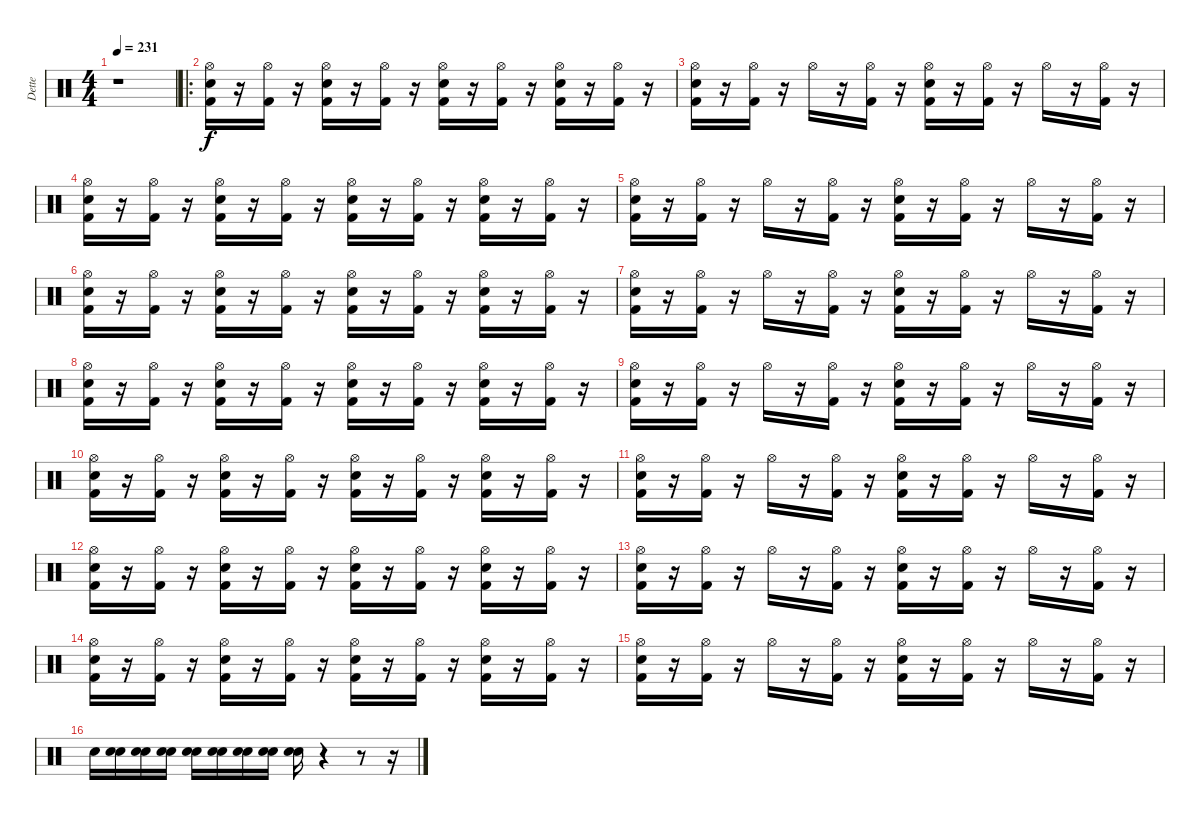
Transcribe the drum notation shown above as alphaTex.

\track ("Dette" "Dette") {instrument percussion}
\staff {score}
\articulation defaults
\ts (4 4)
\tempo 231
\clef neutral
\ks c
r.1{dy f} |
\ro
("Kick (hit) 2" "Snare (hit) 2" "Hi-Hat (open)").16 r.16 ("Kick (hit) 2" "Hi-Hat (open)").16 r.16 ("Kick (hit) 2" "Snare (hit) 2" "Hi-Hat (open)").16 r.16 ("Kick (hit) 2" "Hi-Hat (open)").16 r.16 ("Kick (hit) 2" "Snare (hit) 2" "Hi-Hat (open)").16 r.16 ("Kick (hit) 2" "Hi-Hat (open)").16 r.16 ("Kick (hit) 2" "Snare (hit) 2" "Hi-Hat (open)").16 r.16 ("Kick (hit) 2" "Hi-Hat (open)").16 r.16 |
("Kick (hit) 2" "Snare (hit) 2" "Hi-Hat (open)").16 r.16 ("Kick (hit) 2" "Hi-Hat (open)").16 r.16 "Hi-Hat (open)".16 r.16 ("Kick (hit) 2" "Hi-Hat (open)").16 r.16 ("Kick (hit) 2" "Snare (hit) 2" "Hi-Hat (open)").16 r.16 ("Kick (hit) 2" "Hi-Hat (open)").16 r.16 "Hi-Hat (open)".16 r.16 ("Kick (hit) 2" "Hi-Hat (open)").16 r.16 |
("Kick (hit) 2" "Snare (hit) 2" "Hi-Hat (open)").16 r.16 ("Kick (hit) 2" "Hi-Hat (open)").16 r.16 ("Kick (hit) 2" "Snare (hit) 2" "Hi-Hat (open)").16 r.16 ("Kick (hit) 2" "Hi-Hat (open)").16 r.16 ("Kick (hit) 2" "Snare (hit) 2" "Hi-Hat (open)").16 r.16 ("Kick (hit) 2" "Hi-Hat (open)").16 r.16 ("Kick (hit) 2" "Snare (hit) 2" "Hi-Hat (open)").16 r.16 ("Kick (hit) 2" "Hi-Hat (open)").16 r.16 |
("Kick (hit) 2" "Snare (hit) 2" "Hi-Hat (open)").16 r.16 ("Kick (hit) 2" "Hi-Hat (open)").16 r.16 "Hi-Hat (open)".16 r.16 ("Kick (hit) 2" "Hi-Hat (open)").16 r.16 ("Kick (hit) 2" "Snare (hit) 2" "Hi-Hat (open)").16 r.16 ("Kick (hit) 2" "Hi-Hat (open)").16 r.16 "Hi-Hat (open)".16 r.16 ("Kick (hit) 2" "Hi-Hat (open)").16 r.16 |
("Kick (hit) 2" "Snare (hit) 2" "Hi-Hat (open)").16 r.16 ("Kick (hit) 2" "Hi-Hat (open)").16 r.16 ("Kick (hit) 2" "Snare (hit) 2" "Hi-Hat (open)").16 r.16 ("Kick (hit) 2" "Hi-Hat (open)").16 r.16 ("Kick (hit) 2" "Snare (hit) 2" "Hi-Hat (open)").16 r.16 ("Kick (hit) 2" "Hi-Hat (open)").16 r.16 ("Kick (hit) 2" "Snare (hit) 2" "Hi-Hat (open)").16 r.16 ("Kick (hit) 2" "Hi-Hat (open)").16 r.16 |
("Kick (hit) 2" "Snare (hit) 2" "Hi-Hat (open)").16 r.16 ("Kick (hit) 2" "Hi-Hat (open)").16 r.16 "Hi-Hat (open)".16 r.16 ("Kick (hit) 2" "Hi-Hat (open)").16 r.16 ("Kick (hit) 2" "Snare (hit) 2" "Hi-Hat (open)").16 r.16 ("Kick (hit) 2" "Hi-Hat (open)").16 r.16 "Hi-Hat (open)".16 r.16 ("Kick (hit) 2" "Hi-Hat (open)").16 r.16 |
("Kick (hit) 2" "Snare (hit) 2" "Hi-Hat (open)").16 r.16 ("Kick (hit) 2" "Hi-Hat (open)").16 r.16 ("Kick (hit) 2" "Snare (hit) 2" "Hi-Hat (open)").16 r.16 ("Kick (hit) 2" "Hi-Hat (open)").16 r.16 ("Kick (hit) 2" "Snare (hit) 2" "Hi-Hat (open)").16 r.16 ("Kick (hit) 2" "Hi-Hat (open)").16 r.16 ("Kick (hit) 2" "Snare (hit) 2" "Hi-Hat (open)").16 r.16 ("Kick (hit) 2" "Hi-Hat (open)").16 r.16 |
("Kick (hit) 2" "Snare (hit) 2" "Hi-Hat (open)").16 r.16 ("Kick (hit) 2" "Hi-Hat (open)").16 r.16 "Hi-Hat (open)".16 r.16 ("Kick (hit) 2" "Hi-Hat (open)").16 r.16 ("Kick (hit) 2" "Snare (hit) 2" "Hi-Hat (open)").16 r.16 ("Kick (hit) 2" "Hi-Hat (open)").16 r.16 "Hi-Hat (open)".16 r.16 ("Kick (hit) 2" "Hi-Hat (open)").16 r.16 |
("Kick (hit) 2" "Snare (hit) 2" "Hi-Hat (open)").16 r.16 ("Kick (hit) 2" "Hi-Hat (open)").16 r.16 ("Kick (hit) 2" "Snare (hit) 2" "Hi-Hat (open)").16 r.16 ("Kick (hit) 2" "Hi-Hat (open)").16 r.16 ("Kick (hit) 2" "Snare (hit) 2" "Hi-Hat (open)").16 r.16 ("Kick (hit) 2" "Hi-Hat (open)").16 r.16 ("Kick (hit) 2" "Snare (hit) 2" "Hi-Hat (open)").16 r.16 ("Kick (hit) 2" "Hi-Hat (open)").16 r.16 |
("Kick (hit) 2" "Snare (hit) 2" "Hi-Hat (open)").16 r.16 ("Kick (hit) 2" "Hi-Hat (open)").16 r.16 "Hi-Hat (open)".16 r.16 ("Kick (hit) 2" "Hi-Hat (open)").16 r.16 ("Kick (hit) 2" "Snare (hit) 2" "Hi-Hat (open)").16 r.16 ("Kick (hit) 2" "Hi-Hat (open)").16 r.16 "Hi-Hat (open)".16 r.16 ("Kick (hit) 2" "Hi-Hat (open)").16 r.16 |
("Kick (hit) 2" "Snare (hit) 2" "Hi-Hat (open)").16 r.16 ("Kick (hit) 2" "Hi-Hat (open)").16 r.16 ("Kick (hit) 2" "Snare (hit) 2" "Hi-Hat (open)").16 r.16 ("Kick (hit) 2" "Hi-Hat (open)").16 r.16 ("Kick (hit) 2" "Snare (hit) 2" "Hi-Hat (open)").16 r.16 ("Kick (hit) 2" "Hi-Hat (open)").16 r.16 ("Kick (hit) 2" "Snare (hit) 2" "Hi-Hat (open)").16 r.16 ("Kick (hit) 2" "Hi-Hat (open)").16 r.16 |
("Kick (hit) 2" "Snare (hit) 2" "Hi-Hat (open)").16 r.16 ("Kick (hit) 2" "Hi-Hat (open)").16 r.16 "Hi-Hat (open)".16 r.16 ("Kick (hit) 2" "Hi-Hat (open)").16 r.16 ("Kick (hit) 2" "Snare (hit) 2" "Hi-Hat (open)").16 r.16 ("Kick (hit) 2" "Hi-Hat (open)").16 r.16 "Hi-Hat (open)".16 r.16 ("Kick (hit) 2" "Hi-Hat (open)").16 r.16 |
("Kick (hit) 2" "Snare (hit) 2" "Hi-Hat (open)").16 r.16 ("Kick (hit) 2" "Hi-Hat (open)").16 r.16 ("Kick (hit) 2" "Snare (hit) 2" "Hi-Hat (open)").16 r.16 ("Kick (hit) 2" "Hi-Hat (open)").16 r.16 ("Kick (hit) 2" "Snare (hit) 2" "Hi-Hat (open)").16 r.16 ("Kick (hit) 2" "Hi-Hat (open)").16 r.16 ("Kick (hit) 2" "Snare (hit) 2" "Hi-Hat (open)").16 r.16 ("Kick (hit) 2" "Hi-Hat (open)").16 r.16 |
("Kick (hit) 2" "Snare (hit) 2" "Hi-Hat (open)").16 r.16 ("Kick (hit) 2" "Hi-Hat (open)").16 r.16 "Hi-Hat (open)".16 r.16 ("Kick (hit) 2" "Hi-Hat (open)").16 r.16 ("Kick (hit) 2" "Snare (hit) 2" "Hi-Hat (open)").16 r.16 ("Kick (hit) 2" "Hi-Hat (open)").16 r.16 "Hi-Hat (open)".16 r.16 ("Kick (hit) 2" "Hi-Hat (open)").16 r.16 |
"Snare (hit) 2".16 ("Snare (hit)" "Snare (hit) 2").16 ("Snare (hit)" "Snare (hit) 2").16 ("Snare (hit)" "Snare (hit) 2").16 ("Snare (hit)" "Snare (hit) 2").16 ("Snare (hit)" "Snare (hit) 2").16 ("Snare (hit)" "Snare (hit) 2").16 ("Snare (hit)" "Snare (hit) 2").16 ("Snare (hit)" "Snare (hit) 2").16 r.4 r.8 r.16
